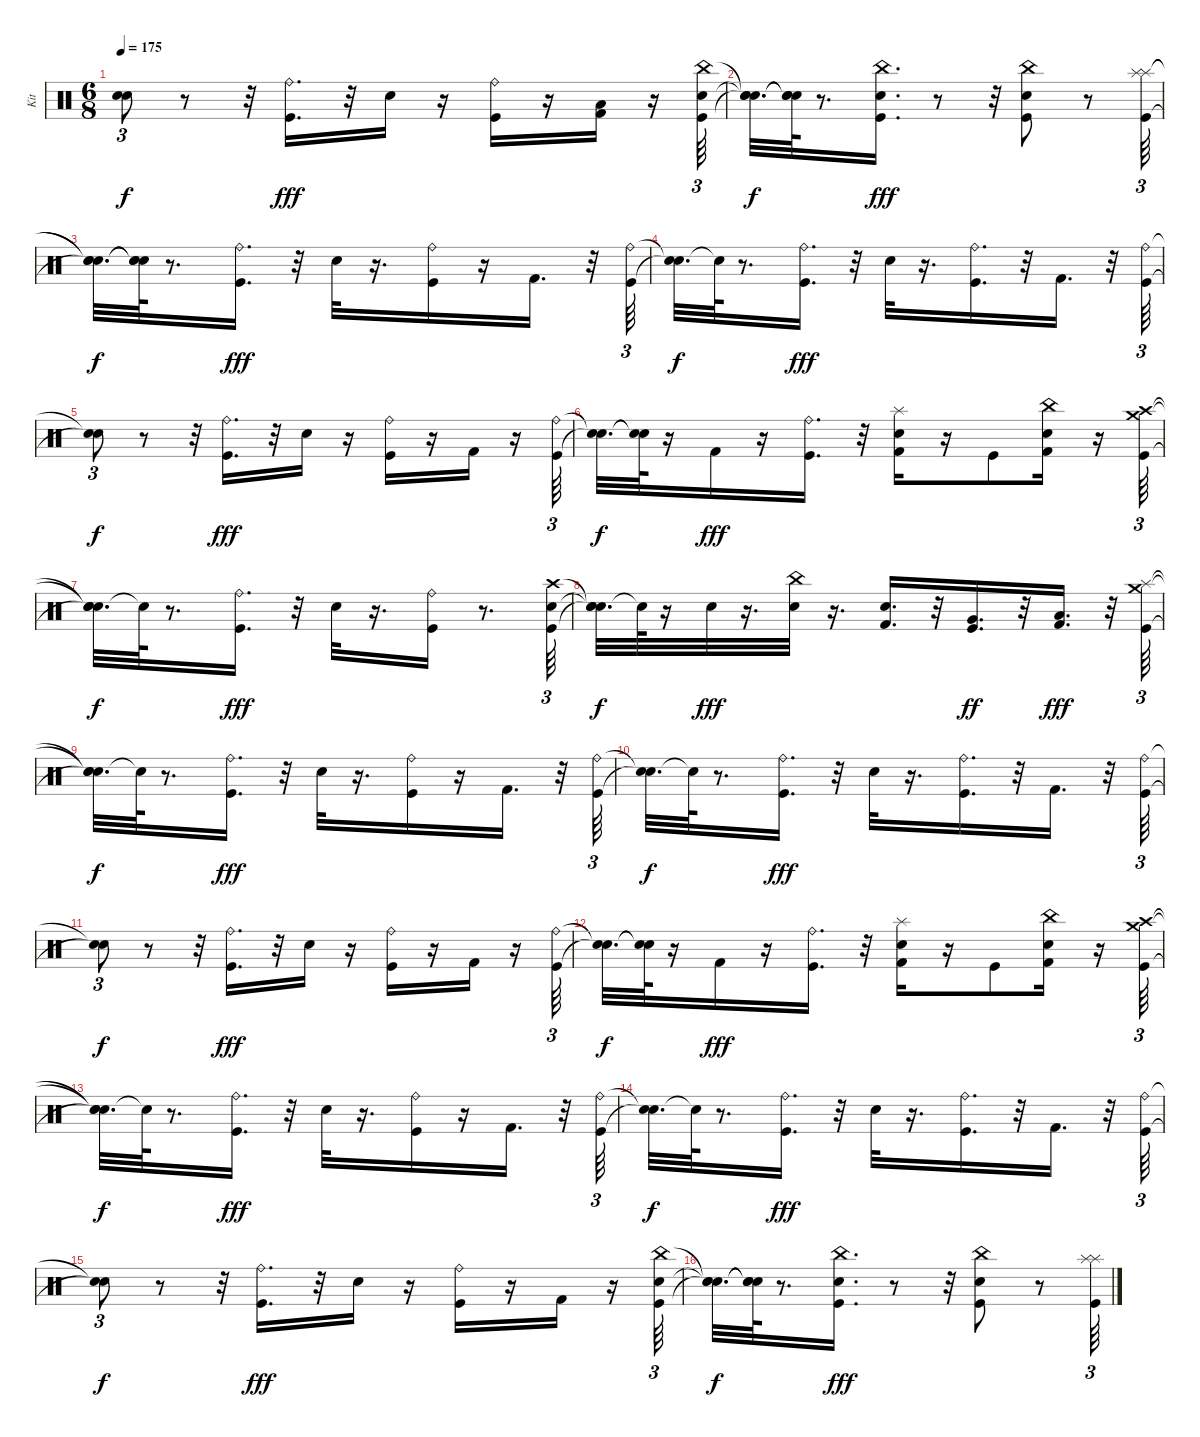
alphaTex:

\track ("Kit" "Kit") {instrument percussion}
\staff {score}
\articulation defaults
\ts (6 8)
\tempo 175
\clef neutral
\ks c
("Snare (hit)"{t} "Snare (hit)"{t}).8{tu (3 2) dy f} r.8 r.32 ("Kick (hit)" "Ride (bell)").16{d dy fff} r.32 "Snare (hit) 2".16 r.16 ("Kick (hit)" "Ride (bell)").16 r.16 ("Kick (hit) 2" "Low Floor Tom (hit)").16 r.16 ("Kick (hit)" "Snare (hit) 2" "China (hit)").64{tu (3 2)} |
("Snare (hit)"{t} "Snare (hit)"{t} "Snare (hit)"{t}).32{d dy f} ("Snare (hit)"{t} "Snare (hit)"{t} "Snare (hit)"{t}).64 r.8{d} ("Kick (hit)" "Snare (hit) 2" "China (hit)").16{d dy fff} r.8 r.32 ("Kick (hit)" "Snare (hit) 2" "China (hit)").8 r.8 ("Kick (hit)" "Splash (hit)" "Splash (hit)").64{tu (3 2)} |
("Snare (hit)"{t} "Snare (hit)"{t} "Snare (hit)"{t}).32{d dy f} ("Snare (hit)"{t} "Snare (hit)"{t} "Snare (hit)"{t}).64 r.8{d} ("Kick (hit)" "Ride (bell)").16{d dy fff} r.32 "Snare (hit) 2".32 r.16{d} ("Kick (hit)" "Ride (bell)").16 r.16 "Kick (hit) 2".16{d} r.32 ("Kick (hit)" "Ride (bell)").64{tu (3 2)} |
("Snare (hit)"{t} "Snare (hit)"{t}).32{d dy f} "Snare (hit)"{t}.64 r.8{d} ("Kick (hit)" "Ride (bell)").16{d dy fff} r.32 "Snare (hit) 2".32 r.16{d} ("Kick (hit)" "Ride (bell)").16{d} r.32 "Kick (hit) 2".16{d} r.32 ("Kick (hit)" "Ride (bell)").64{tu (3 2)} |
("Snare (hit)"{t} "Snare (hit)"{t}).8{tu (3 2) dy f} r.8 r.32 ("Kick (hit)" "Ride (bell)").16{d dy fff} r.32 "Snare (hit) 2".16 r.16 ("Kick (hit)" "Ride (bell)").16 r.16 "Kick (hit) 2".16 r.16 ("Kick (hit)" "Ride (bell)").64{tu (3 2)} |
("Snare (hit)"{t} "Snare (hit)"{t}).32{d dy f} ("Snare (hit)"{t} "Snare (hit)"{t}).64 r.16 "Kick (hit) 2".16{dy fff} r.16 ("Kick (hit)" "Ride (bell)").16{d} r.32 ("Kick (hit) 2" "Snare (hit) 2" "Splash (hit)").16 r.16 "Kick (hit)".8 ("Kick (hit) 2" "Snare (hit) 2" "China (hit)").16 r.16 ("Kick (hit)" "Crash high (hit)" "Crash medium (hit)").64{tu (3 2)} |
("Snare (hit)"{t} "Snare (hit)"{t} "Snare (hit)"{t}).32{d dy f} "Snare (hit)"{t}.64 r.8{d} ("Kick (hit)" "Ride (bell)").16{d dy fff} r.32 "Snare (hit) 2".32 r.16{d} ("Kick (hit)" "Ride (bell)").16 r.8{d} ("Kick (hit)" "Snare (hit) 2" "Crash high (hit)").64{tu (3 2)} |
("Snare (hit)"{t} "Snare (hit)"{t} "Snare (hit)"{t}).32{d dy f} "Snare (hit)"{t}.64 r.16 "Snare (hit) 2".32{dy fff} r.16{d} ("Snare (hit) 2" "China (hit)").32 r.16{d} ("Kick (hit) 2" "Snare (hit) 2").16{d} r.32 ("Kick (hit)" "Very Low Tom (hit)").16{d dy ff} r.32 ("Kick (hit) 2" "Low Floor Tom (hit)").16{d dy fff} r.32 ("Kick (hit)" "Splash (hit)" "Crash medium (hit)").64{tu (3 2)} |
("Snare (hit)"{t} "Snare (hit)"{t} "Snare (hit)"{t}).32{d dy f} "Snare (hit)"{t}.64 r.8{d} ("Kick (hit)" "Ride (bell)").16{d dy fff} r.32 "Snare (hit) 2".32 r.16{d} ("Kick (hit)" "Ride (bell)").16 r.16 "Kick (hit) 2".16{d} r.32 ("Kick (hit)" "Ride (bell)").64{tu (3 2)} |
("Snare (hit)"{t} "Snare (hit)"{t}).32{d dy f} "Snare (hit)"{t}.64 r.8{d} ("Kick (hit)" "Ride (bell)").16{d dy fff} r.32 "Snare (hit) 2".32 r.16{d} ("Kick (hit)" "Ride (bell)").16{d} r.32 "Kick (hit) 2".16{d} r.32 ("Kick (hit)" "Ride (bell)").64{tu (3 2)} |
("Snare (hit)"{t} "Snare (hit)"{t}).8{tu (3 2) dy f} r.8 r.32 ("Kick (hit)" "Ride (bell)").16{d dy fff} r.32 "Snare (hit) 2".16 r.16 ("Kick (hit)" "Ride (bell)").16 r.16 "Kick (hit) 2".16 r.16 ("Kick (hit)" "Ride (bell)").64{tu (3 2)} |
("Snare (hit)"{t} "Snare (hit)"{t}).32{d dy f} ("Snare (hit)"{t} "Snare (hit)"{t}).64 r.16 "Kick (hit) 2".16{dy fff} r.16 ("Kick (hit)" "Ride (bell)").16{d} r.32 ("Kick (hit) 2" "Snare (hit) 2" "Splash (hit)").16 r.16 "Kick (hit)".8 ("Kick (hit) 2" "Snare (hit) 2" "China (hit)").16 r.16 ("Kick (hit)" "Crash high (hit)" "Crash medium (hit)").64{tu (3 2)} |
("Snare (hit)"{t} "Snare (hit)"{t} "Snare (hit)"{t}).32{d dy f} "Snare (hit)"{t}.64 r.8{d} ("Kick (hit)" "Ride (bell)").16{d dy fff} r.32 "Snare (hit) 2".32 r.16{d} ("Kick (hit)" "Ride (bell)").16 r.16 "Kick (hit) 2".16{d} r.32 ("Kick (hit)" "Ride (bell)").64{tu (3 2)} |
("Snare (hit)"{t} "Snare (hit)"{t}).32{d dy f} "Snare (hit)"{t}.64 r.8{d} ("Kick (hit)" "Ride (bell)").16{d dy fff} r.32 "Snare (hit) 2".32 r.16{d} ("Kick (hit)" "Ride (bell)").16{d} r.32 "Kick (hit) 2".16{d} r.32 ("Kick (hit)" "Ride (bell)").64{tu (3 2)} |
("Snare (hit)"{t} "Snare (hit)"{t}).8{tu (3 2) dy f} r.8 r.32 ("Kick (hit)" "Ride (bell)").16{d dy fff} r.32 "Snare (hit) 2".16 r.16 ("Kick (hit)" "Ride (bell)").16 r.16 "Kick (hit) 2".16 r.16 ("Kick (hit)" "Snare (hit) 2" "China (hit)").64{tu (3 2)} |
("Snare (hit)"{t} "Snare (hit)"{t} "Snare (hit)"{t}).32{d dy f} ("Snare (hit)"{t} "Snare (hit)"{t} "Snare (hit)"{t}).64 r.8{d} ("Kick (hit)" "Snare (hit) 2" "China (hit)").16{d dy fff} r.8 r.32 ("Kick (hit)" "Snare (hit) 2" "China (hit)").8 r.8 ("Kick (hit)" "Splash (hit)" "Splash (hit)").64{tu (3 2)}
